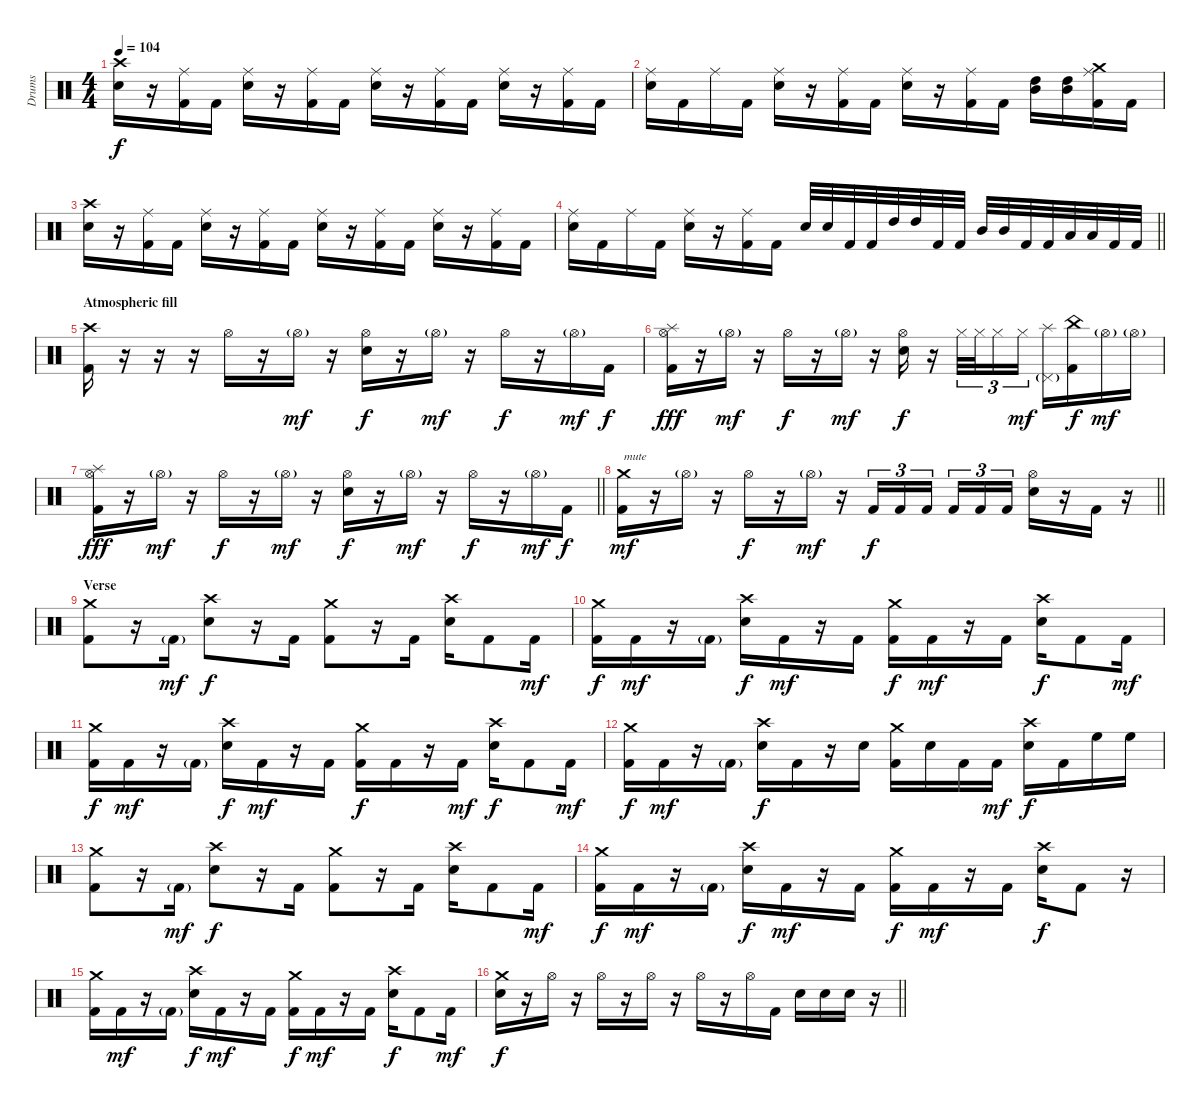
\track ("Drums" "Drums") {instrument percussion}
\staff {score}
\articulation defaults
\ts (4 4)
\tempo 104
\clef neutral
\ks c
("Crash high (hit)" "Electric Snare (hit)").16{dy f} r.16 ("Ride (middle)" "Kick (hit) 2").16 "Kick (hit) 2".16 ("Ride (middle)" "Electric Snare (hit)").16 r.16 ("Ride (middle)" "Kick (hit) 2").16 "Kick (hit) 2".16 ("Ride (middle)" "Electric Snare (hit)").16 r.16 ("Ride (middle)" "Kick (hit) 2").16 "Kick (hit) 2".16 ("Ride (middle)" "Electric Snare (hit)").16 r.16 ("Ride (middle)" "Kick (hit) 2").16 "Kick (hit) 2".16 |
("Ride (middle)" "Electric Snare (hit)").16 "Kick (hit) 2".16 "Ride (middle)".16 "Kick (hit) 2".16 ("Ride (middle)" "Electric Snare (hit)").16 r.16 ("Ride (middle)" "Kick (hit) 2").16 "Kick (hit) 2".16 ("Ride (middle)" "Electric Snare (hit)").16 r.16 ("Ride (middle)" "Kick (hit) 2").16 "Kick (hit) 2".16 ("High Tom (hit)" "Mid Tom (hit)").16 ("High Tom (hit)" "Mid Tom (hit)").16 ("Crash medium (hit)" "Ride (middle)" "Kick (hit) 2").16 "Kick (hit) 2".16 |
("Crash high (hit)" "Electric Snare (hit)").16 r.16 ("Ride (middle)" "Kick (hit) 2").16 "Kick (hit) 2".16 ("Ride (middle)" "Electric Snare (hit)").16 r.16 ("Ride (middle)" "Kick (hit) 2").16 "Kick (hit) 2".16 ("Ride (middle)" "Electric Snare (hit)").16 r.16 ("Ride (middle)" "Kick (hit) 2").16 "Kick (hit) 2".16 ("Ride (middle)" "Electric Snare (hit)").16 r.16 ("Ride (middle)" "Kick (hit) 2").16 "Kick (hit) 2".16 |
\barLineRight lightlight
("Ride (middle)" "Electric Snare (hit)").16 "Kick (hit) 2".16 "Ride (middle)".16 "Kick (hit) 2".16 ("Ride (middle)" "Electric Snare (hit)").16 r.16 ("Ride (middle)" "Kick (hit) 2").16 "Kick (hit) 2".16 "Electric Snare (hit)".32 "Electric Snare (hit)".32 "Kick (hit) 2".32 "Kick (hit) 2".32 "High Tom (hit)".32 "High Tom (hit)".32 "Kick (hit) 2".32 "Kick (hit) 2".32 "Mid Tom (hit)".32 "Mid Tom (hit)".32 "Kick (hit) 2".32 "Kick (hit) 2".32 "Low Tom (hit)".32 "Low Tom (hit)".32 "Kick (hit) 2".32 "Kick (hit) 2".32 |
\section ("" "Atmospheric fill")
("Crash high (hit)" "Kick (hit) 2").16 r.16 r.16 r.16 "Hi-Hat (open)".16 r.16 "Hi-Hat (open)"{g}.16{dy mf} r.16 ("Hi-Hat (open)" "Electric Snare (hit)").16{dy f} r.16 "Hi-Hat (open)"{g}.16{dy mf} r.16 "Hi-Hat (open)".16{dy f} r.16 "Hi-Hat (open)"{g}.16{dy mf} "Kick (hit) 2".16{dy f} |
("Splash (hit)" "Hi-Hat (open)" "Kick (hit) 2").16{dy fff} r.16 "Hi-Hat (open)"{g}.16{dy mf} r.16 "Hi-Hat (open)".16{dy f} r.16 "Hi-Hat (open)"{g}.16{dy mf} r.16 ("Hi-Hat (open)" "Electric Snare (hit)").16{dy f} r.16 "Hi-Hat (closed)".32{tu (3 2)} "Hi-Hat (closed)".32{tu (3 2)} "Hi-Hat (closed)".16{tu (3 2)} "Hi-Hat (closed)".16{tu (3 2) dy mf} ("Splash (hit)" "Pedal Hi-Hat (hit)"{g}).16 ("China (hit)" "Kick (hit) 2").16{dy f} "Hi-Hat (open)"{g}.16{dy mf} "Hi-Hat (open)"{g}.16 |
\barLineRight lightlight
("Splash (hit)" "Hi-Hat (open)" "Kick (hit) 2").16{dy fff} r.16 "Hi-Hat (open)"{g}.16{dy mf} r.16 "Hi-Hat (open)".16{dy f} r.16 "Hi-Hat (open)"{g}.16{dy mf} r.16 ("Hi-Hat (open)" "Electric Snare (hit)").16{dy f} r.16 "Hi-Hat (open)"{g}.16{dy mf} r.16 "Hi-Hat (open)".16{dy f} r.16 "Hi-Hat (open)"{g}.16{dy mf} "Kick (hit) 2".16{dy f} |
\barLineRight lightlight
("Crash medium (hit)" "Kick (hit) 2").16{txt "mute" dy mf} r.16 "Hi-Hat (open)"{g}.16 r.16 "Hi-Hat (open)".16{dy f} r.16 "Hi-Hat (open)"{g}.16{dy mf} r.16 "Kick (hit) 2".16{tu (3 2) dy f} "Kick (hit) 2".16{tu (3 2)} "Kick (hit) 2".16{tu (3 2) beam splitsecondary} "Kick (hit) 2".16{tu (3 2)} "Kick (hit) 2".16{tu (3 2)} "Kick (hit) 2".16{tu (3 2)} ("Hi-Hat (open)" "Electric Snare (hit)").16 r.16 "Kick (hit) 2".16 r.16 |
\section ("" "Verse")
("Crash medium (hit)" "Kick (hit) 2").8 r.16 "Kick (hit) 2"{g}.16{dy mf} ("Crash high (hit)" "Electric Snare (hit)").8{dy f} r.16 "Kick (hit) 2".16 ("Crash medium (hit)" "Kick (hit) 2").8 r.16 "Kick (hit) 2".16 ("Crash high (hit)" "Electric Snare (hit)").16 "Kick (hit) 2".8 "Kick (hit) 2".16{dy mf} |
("Crash medium (hit)" "Kick (hit) 2").16{dy f} "Kick (hit) 2".16{dy mf} r.16 "Kick (hit) 2"{g}.16 ("Crash high (hit)" "Electric Snare (hit)").16{dy f} "Kick (hit) 2".16{dy mf} r.16 "Kick (hit) 2".16 ("Crash medium (hit)" "Kick (hit) 2").16{dy f} "Kick (hit) 2".16{dy mf} r.16 "Kick (hit) 2".16 ("Crash high (hit)" "Electric Snare (hit)").16{dy f} "Kick (hit) 2".8 "Kick (hit) 2".16{dy mf} |
("Crash medium (hit)" "Kick (hit) 2").16{dy f} "Kick (hit) 2".16{dy mf} r.16 "Kick (hit) 2"{g}.16 ("Crash high (hit)" "Electric Snare (hit)").16{dy f} "Kick (hit) 2".16{dy mf} r.16 "Kick (hit) 2".16 ("Crash medium (hit)" "Kick (hit) 2").16{dy f} "Kick (hit) 2".16 r.16 "Kick (hit) 2".16{dy mf} ("Crash high (hit)" "Electric Snare (hit)").16{dy f} "Kick (hit) 2".8 "Kick (hit) 2".16{dy mf} |
("Crash medium (hit)" "Kick (hit) 2").16{dy f} "Kick (hit) 2".16{dy mf} r.16 "Kick (hit) 2"{g}.16 ("Crash high (hit)" "Electric Snare (hit)").16{dy f} "Kick (hit) 2".16 r.16 "Electric Snare (hit)".16 ("Crash medium (hit)" "Kick (hit) 2").16 "Electric Snare (hit)".16 "Kick (hit) 2".16 "Kick (hit) 2".16{dy mf} ("Crash high (hit)" "Electric Snare (hit)").16{dy f} "Kick (hit) 2".16 "High Floor Tom (hit)".16 "High Floor Tom (hit)".16 |
("Crash medium (hit)" "Kick (hit) 2").8 r.16 "Kick (hit) 2"{g}.16{dy mf} ("Crash high (hit)" "Electric Snare (hit)").8{dy f} r.16 "Kick (hit) 2".16 ("Crash medium (hit)" "Kick (hit) 2").8 r.16 "Kick (hit) 2".16 ("Crash high (hit)" "Electric Snare (hit)").16 "Kick (hit) 2".8 "Kick (hit) 2".16{dy mf} |
("Crash medium (hit)" "Kick (hit) 2").16{dy f} "Kick (hit) 2".16{dy mf} r.16 "Kick (hit) 2"{g}.16 ("Crash high (hit)" "Electric Snare (hit)").16{dy f} "Kick (hit) 2".16{dy mf} r.16 "Kick (hit) 2".16 ("Crash medium (hit)" "Kick (hit) 2").16{dy f} "Kick (hit) 2".16{dy mf} r.16 "Kick (hit) 2".16 ("Crash high (hit)" "Electric Snare (hit)").16{dy f} "Kick (hit) 2".8 r.16 |
("Crash medium (hit)" "Kick (hit) 2").16 "Kick (hit) 2".16{dy mf} r.16 "Kick (hit) 2"{g}.16 ("Crash high (hit)" "Electric Snare (hit)").16{dy f} "Kick (hit) 2".16{dy mf} r.16 "Kick (hit) 2".16 ("Crash medium (hit)" "Kick (hit) 2").16{dy f} "Kick (hit) 2".16{dy mf} r.16 "Kick (hit) 2".16 ("Crash high (hit)" "Electric Snare (hit)").16{dy f} "Kick (hit) 2".8 "Kick (hit) 2".16{dy mf} |
\barLineRight lightlight
("Crash medium (hit)" "Electric Snare (hit)").16{dy f} r.16 "Hi-Hat (open)".16 r.16 "Hi-Hat (open)".16 r.16 "Hi-Hat (open)".16 r.16 "Hi-Hat (open)".16 r.16 "Hi-Hat (open)".16 "Kick (hit) 2".16 "Electric Snare (hit)".16 "Electric Snare (hit)".16 "Electric Snare (hit)".16 r.16
